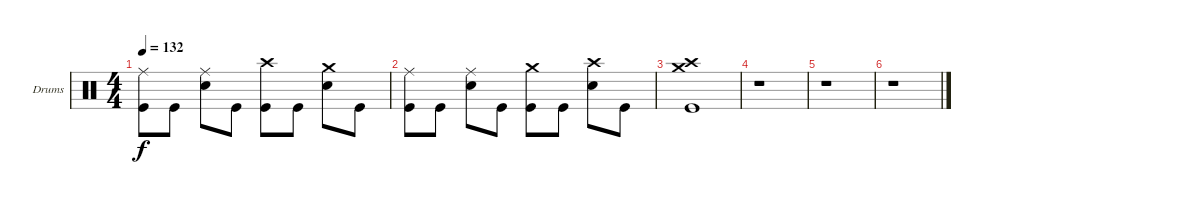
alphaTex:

\bracketExtendMode groupsimilarinstruments
\firstSystemTrackNameOrientation horizontal
\otherSystemsTrackNameOrientation horizontal
\track ("Drumkit" "Drums") {instrument percussion}
\staff {score}
\articulation defaults
\ts (4 4)
\tempo 132
\clef neutral
\ks c
("Ride (middle)" "Kick (hit)").8{dy f} "Kick (hit)".8 ("Ride (middle)" "Snare (hit) 2").8 "Kick (hit)".8 ("Crash high (hit)" "Kick (hit)").8 "Kick (hit)".8 ("Crash medium (hit)" "Snare (hit) 2").8 "Kick (hit)".8 |
("Ride (middle)" "Kick (hit)").8 "Kick (hit)".8 ("Ride (middle)" "Snare (hit) 2").8 "Kick (hit)".8 ("Crash medium (hit)" "Kick (hit)").8 "Kick (hit)".8 ("Crash high (hit)" "Snare (hit) 2").8 "Kick (hit)".8 |
("Crash medium (hit)" "Crash high (hit)" "Kick (hit)").1 |
r.1 |
r.1 |
r.1
